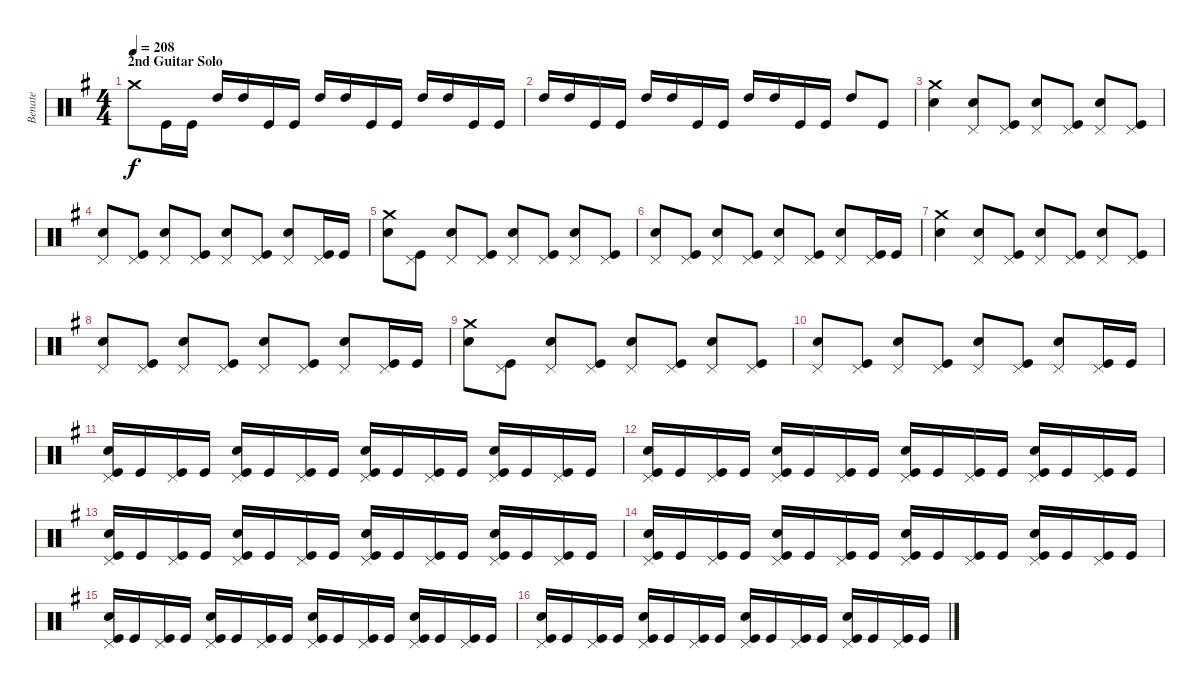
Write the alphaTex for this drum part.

\track ("Benate" "Benate") {instrument percussion}
\staff {score}
\articulation defaults
\ts (4 4)
\section ("" "2nd Guitar Solo")
\tempo 208
\clef neutral
\ks g "Crash medium (hit)"{t}.8{dy f} "Kick (hit)".16 "Kick (hit)".16 "High Tom (hit)".16 "High Tom (hit)".16 "Kick (hit)".16 "Kick (hit)".16 "High Tom (hit)".16 "High Tom (hit)".16 "Kick (hit)".16 "Kick (hit)".16 "High Tom (hit)".16 "High Tom (hit)".16 "Kick (hit)".16 "Kick (hit)".16
|
"High Tom (hit)".16 "High Tom (hit)".16 "Kick (hit)".16 "Kick (hit)".16 "High Tom (hit)".16 "High Tom (hit)".16 "Kick (hit)".16 "Kick (hit)".16 "High Tom (hit)".16 "High Tom (hit)".16 "Kick (hit)".16 "Kick (hit)".16 "High Tom (hit)".8 "Kick (hit)".8 |
("Crash medium (hit)" "Snare (hit) 2").4 ("Pedal Hi-Hat (hit)" "Snare (hit) 2").8 ("Pedal Hi-Hat (hit)" "Kick (hit)").8 ("Pedal Hi-Hat (hit)" "Snare (hit) 2").8 ("Pedal Hi-Hat (hit)" "Kick (hit)").8 ("Pedal Hi-Hat (hit)" "Snare (hit) 2").8 ("Pedal Hi-Hat (hit)" "Kick (hit)").8 |
("Pedal Hi-Hat (hit)" "Snare (hit) 2").8 ("Pedal Hi-Hat (hit)" "Kick (hit)").8 ("Pedal Hi-Hat (hit)" "Snare (hit) 2").8 ("Pedal Hi-Hat (hit)" "Kick (hit)").8 ("Pedal Hi-Hat (hit)" "Snare (hit) 2").8 ("Pedal Hi-Hat (hit)" "Kick (hit)").8 ("Pedal Hi-Hat (hit)" "Snare (hit) 2").8 ("Pedal Hi-Hat (hit)" "Kick (hit)").16 "Kick (hit)".16 |
("Crash medium (hit)" "Snare (hit) 2").8 ("Pedal Hi-Hat (hit)" "Kick (hit)").8 ("Pedal Hi-Hat (hit)" "Snare (hit) 2").8 ("Pedal Hi-Hat (hit)" "Kick (hit)").8 ("Pedal Hi-Hat (hit)" "Snare (hit) 2").8 ("Pedal Hi-Hat (hit)" "Kick (hit)").8 ("Pedal Hi-Hat (hit)" "Snare (hit) 2").8 ("Pedal Hi-Hat (hit)" "Kick (hit)").8 |
("Pedal Hi-Hat (hit)" "Snare (hit) 2").8 ("Pedal Hi-Hat (hit)" "Kick (hit)").8 ("Pedal Hi-Hat (hit)" "Snare (hit) 2").8 ("Pedal Hi-Hat (hit)" "Kick (hit)").8 ("Pedal Hi-Hat (hit)" "Snare (hit) 2").8 ("Pedal Hi-Hat (hit)" "Kick (hit)").8 ("Pedal Hi-Hat (hit)" "Snare (hit) 2").8 ("Pedal Hi-Hat (hit)" "Kick (hit)").16 "Kick (hit)".16 |
("Crash medium (hit)" "Snare (hit) 2").4 ("Pedal Hi-Hat (hit)" "Snare (hit) 2").8 ("Pedal Hi-Hat (hit)" "Kick (hit)").8 ("Pedal Hi-Hat (hit)" "Snare (hit) 2").8 ("Pedal Hi-Hat (hit)" "Kick (hit)").8 ("Pedal Hi-Hat (hit)" "Snare (hit) 2").8 ("Pedal Hi-Hat (hit)" "Kick (hit)").8 |
("Pedal Hi-Hat (hit)" "Snare (hit) 2").8 ("Pedal Hi-Hat (hit)" "Kick (hit)").8 ("Pedal Hi-Hat (hit)" "Snare (hit) 2").8 ("Pedal Hi-Hat (hit)" "Kick (hit)").8 ("Pedal Hi-Hat (hit)" "Snare (hit) 2").8 ("Pedal Hi-Hat (hit)" "Kick (hit)").8 ("Pedal Hi-Hat (hit)" "Snare (hit) 2").8 ("Pedal Hi-Hat (hit)" "Kick (hit)").16 "Kick (hit)".16 |
("Crash medium (hit)" "Snare (hit) 2").8 ("Pedal Hi-Hat (hit)" "Kick (hit)").8 ("Pedal Hi-Hat (hit)" "Snare (hit) 2").8 ("Pedal Hi-Hat (hit)" "Kick (hit)").8 ("Pedal Hi-Hat (hit)" "Snare (hit) 2").8 ("Pedal Hi-Hat (hit)" "Kick (hit)").8 ("Pedal Hi-Hat (hit)" "Snare (hit) 2").8 ("Pedal Hi-Hat (hit)" "Kick (hit)").8 |
("Pedal Hi-Hat (hit)" "Snare (hit) 2").8 ("Pedal Hi-Hat (hit)" "Kick (hit)").8 ("Pedal Hi-Hat (hit)" "Snare (hit) 2").8 ("Pedal Hi-Hat (hit)" "Kick (hit)").8 ("Pedal Hi-Hat (hit)" "Snare (hit) 2").8 ("Pedal Hi-Hat (hit)" "Kick (hit)").8 ("Pedal Hi-Hat (hit)" "Snare (hit) 2").8 ("Pedal Hi-Hat (hit)" "Kick (hit)").16 "Kick (hit)".16 |
("Pedal Hi-Hat (hit)" "Snare (hit) 2" "Kick (hit)").16 "Kick (hit)".16 ("Pedal Hi-Hat (hit)" "Kick (hit)").16 "Kick (hit)".16 ("Pedal Hi-Hat (hit)" "Snare (hit) 2" "Kick (hit)").16 "Kick (hit)".16 ("Pedal Hi-Hat (hit)" "Kick (hit)").16 "Kick (hit)".16 ("Pedal Hi-Hat (hit)" "Snare (hit) 2" "Kick (hit)").16 "Kick (hit)".16 ("Pedal Hi-Hat (hit)" "Kick (hit)").16 "Kick (hit)".16 ("Pedal Hi-Hat (hit)" "Snare (hit) 2" "Kick (hit)").16 "Kick (hit)".16 ("Pedal Hi-Hat (hit)" "Kick (hit)").16 "Kick (hit)".16 |
("Pedal Hi-Hat (hit)" "Snare (hit) 2" "Kick (hit)").16 "Kick (hit)".16 ("Pedal Hi-Hat (hit)" "Kick (hit)").16 "Kick (hit)".16 ("Pedal Hi-Hat (hit)" "Snare (hit) 2" "Kick (hit)").16 "Kick (hit)".16 ("Pedal Hi-Hat (hit)" "Kick (hit)").16 "Kick (hit)".16 ("Pedal Hi-Hat (hit)" "Snare (hit) 2" "Kick (hit)").16 "Kick (hit)".16 ("Pedal Hi-Hat (hit)" "Kick (hit)").16 "Kick (hit)".16 ("Pedal Hi-Hat (hit)" "Snare (hit) 2" "Kick (hit)").16 "Kick (hit)".16 ("Pedal Hi-Hat (hit)" "Kick (hit)").16 "Kick (hit)".16 |
("Pedal Hi-Hat (hit)" "Snare (hit) 2" "Kick (hit)").16 "Kick (hit)".16 ("Pedal Hi-Hat (hit)" "Kick (hit)").16 "Kick (hit)".16 ("Pedal Hi-Hat (hit)" "Snare (hit) 2" "Kick (hit)").16 "Kick (hit)".16 ("Pedal Hi-Hat (hit)" "Kick (hit)").16 "Kick (hit)".16 ("Pedal Hi-Hat (hit)" "Snare (hit) 2" "Kick (hit)").16 "Kick (hit)".16 ("Pedal Hi-Hat (hit)" "Kick (hit)").16 "Kick (hit)".16 ("Pedal Hi-Hat (hit)" "Snare (hit) 2" "Kick (hit)").16 "Kick (hit)".16 ("Pedal Hi-Hat (hit)" "Kick (hit)").16 "Kick (hit)".16 |
("Pedal Hi-Hat (hit)" "Snare (hit) 2" "Kick (hit)").16 "Kick (hit)".16 ("Pedal Hi-Hat (hit)" "Kick (hit)").16 "Kick (hit)".16 ("Pedal Hi-Hat (hit)" "Snare (hit) 2" "Kick (hit)").16 "Kick (hit)".16 ("Pedal Hi-Hat (hit)" "Kick (hit)").16 "Kick (hit)".16 ("Pedal Hi-Hat (hit)" "Snare (hit) 2" "Kick (hit)").16 "Kick (hit)".16 ("Pedal Hi-Hat (hit)" "Kick (hit)").16 "Kick (hit)".16 ("Pedal Hi-Hat (hit)" "Snare (hit) 2" "Kick (hit)").16 "Kick (hit)".16 ("Pedal Hi-Hat (hit)" "Kick (hit)").16 "Kick (hit)".16 |
("Pedal Hi-Hat (hit)" "Snare (hit) 2" "Kick (hit)").16 "Kick (hit)".16 ("Pedal Hi-Hat (hit)" "Kick (hit)").16 "Kick (hit)".16 ("Pedal Hi-Hat (hit)" "Snare (hit) 2" "Kick (hit)").16 "Kick (hit)".16 ("Pedal Hi-Hat (hit)" "Kick (hit)").16 "Kick (hit)".16 ("Pedal Hi-Hat (hit)" "Snare (hit) 2" "Kick (hit)").16 "Kick (hit)".16 ("Pedal Hi-Hat (hit)" "Kick (hit)").16 "Kick (hit)".16 ("Pedal Hi-Hat (hit)" "Snare (hit) 2" "Kick (hit)").16 "Kick (hit)".16 ("Pedal Hi-Hat (hit)" "Kick (hit)").16 "Kick (hit)".16 |
("Pedal Hi-Hat (hit)" "Snare (hit) 2" "Kick (hit)").16 "Kick (hit)".16 ("Pedal Hi-Hat (hit)" "Kick (hit)").16 "Kick (hit)".16 ("Pedal Hi-Hat (hit)" "Snare (hit) 2" "Kick (hit)").16 "Kick (hit)".16 ("Pedal Hi-Hat (hit)" "Kick (hit)").16 "Kick (hit)".16 ("Pedal Hi-Hat (hit)" "Snare (hit) 2" "Kick (hit)").16 "Kick (hit)".16 ("Pedal Hi-Hat (hit)" "Kick (hit)").16 "Kick (hit)".16 ("Pedal Hi-Hat (hit)" "Snare (hit) 2" "Kick (hit)").16 "Kick (hit)".16 ("Pedal Hi-Hat (hit)" "Kick (hit)").16 "Kick (hit)".16
